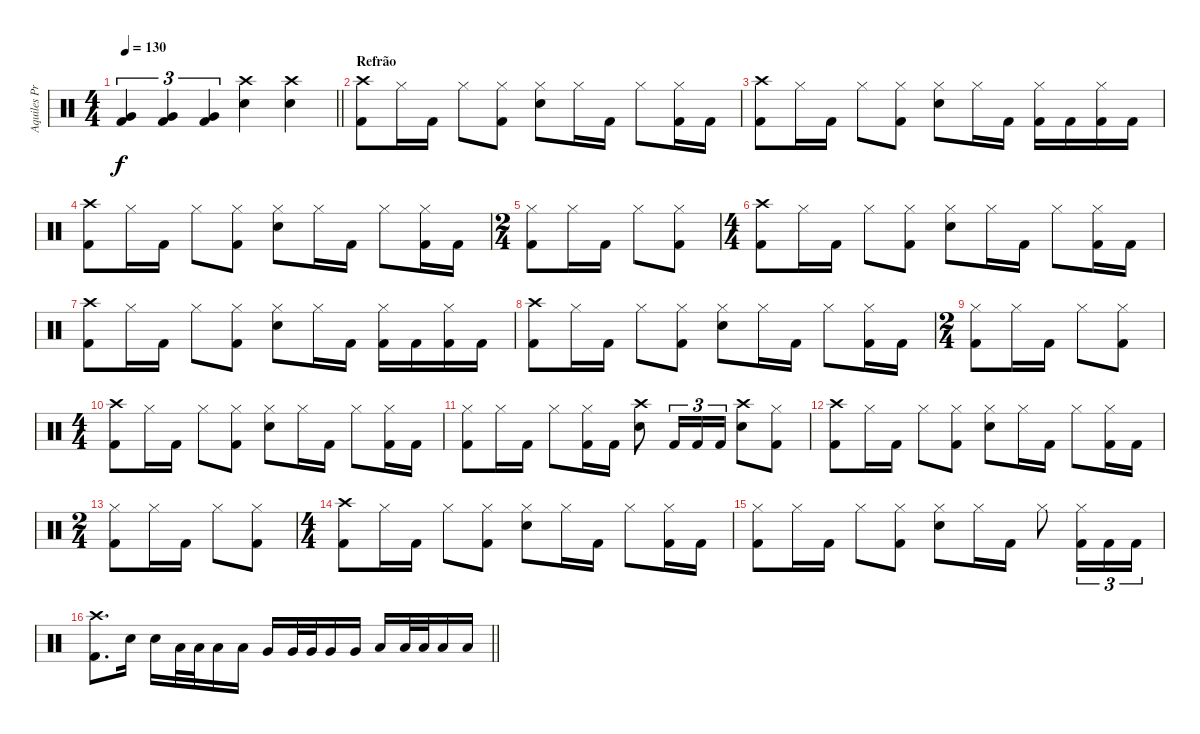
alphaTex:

\track ("Aquiles Priester" "Aquiles Pr") {instrument percussion}
\staff {score}
\articulation defaults
\ts (4 4)
\tempo 130
\clef neutral
\barLineRight lightlight
\ks c
("Very Low Tom (hit)" "Kick (hit) 2").4{tu (3 2) dy f} ("Very Low Tom (hit)" "Kick (hit) 2").4{tu (3 2)} ("Very Low Tom (hit)" "Kick (hit) 2").4{tu (3 2)} ("Crash high (hit)" "Electric Snare (hit)").4 ("Crash high (hit)" "Electric Snare (hit)").4 |
\section ("" "Refrão")
("Crash high (hit)" "Kick (hit) 2").8 "Hi-Hat (closed)".16 "Kick (hit) 2".16 "Hi-Hat (closed)".8 ("Hi-Hat (closed)" "Kick (hit) 2").8 ("Hi-Hat (closed)" "Electric Snare (hit)").8 "Hi-Hat (closed)".16 "Kick (hit) 2".16 "Hi-Hat (closed)".8 ("Hi-Hat (closed)" "Kick (hit) 2").16 "Kick (hit) 2".16 |
("Crash high (hit)" "Kick (hit) 2").8 "Hi-Hat (closed)".16 "Kick (hit) 2".16 "Hi-Hat (closed)".8 ("Hi-Hat (closed)" "Kick (hit) 2").8 ("Hi-Hat (closed)" "Electric Snare (hit)").8 "Hi-Hat (closed)".16 "Kick (hit) 2".16 ("Hi-Hat (closed)" "Kick (hit) 2").16 "Kick (hit) 2".16 ("Hi-Hat (closed)" "Kick (hit) 2").16 "Kick (hit) 2".16 |
("Crash high (hit)" "Kick (hit) 2").8 "Hi-Hat (closed)".16 "Kick (hit) 2".16 "Hi-Hat (closed)".8 ("Hi-Hat (closed)" "Kick (hit) 2").8 ("Hi-Hat (closed)" "Electric Snare (hit)").8 "Hi-Hat (closed)".16 "Kick (hit) 2".16 "Hi-Hat (closed)".8 ("Hi-Hat (closed)" "Kick (hit) 2").16 "Kick (hit) 2".16 |
\ts (2 4)
("Hi-Hat (closed)" "Kick (hit) 2").8 "Hi-Hat (closed)".16 "Kick (hit) 2".16 "Hi-Hat (closed)".8 ("Hi-Hat (closed)" "Kick (hit) 2").8 |
\ts (4 4)
("Crash high (hit)" "Kick (hit) 2").8 "Hi-Hat (closed)".16 "Kick (hit) 2".16 "Hi-Hat (closed)".8 ("Hi-Hat (closed)" "Kick (hit) 2").8 ("Hi-Hat (closed)" "Electric Snare (hit)").8 "Hi-Hat (closed)".16 "Kick (hit) 2".16 "Hi-Hat (closed)".8 ("Hi-Hat (closed)" "Kick (hit) 2").16 "Kick (hit) 2".16 |
("Crash high (hit)" "Kick (hit) 2").8 "Hi-Hat (closed)".16 "Kick (hit) 2".16 "Hi-Hat (closed)".8 ("Hi-Hat (closed)" "Kick (hit) 2").8 ("Hi-Hat (closed)" "Electric Snare (hit)").8 "Hi-Hat (closed)".16 "Kick (hit) 2".16 ("Hi-Hat (closed)" "Kick (hit) 2").16 "Kick (hit) 2".16 ("Hi-Hat (closed)" "Kick (hit) 2").16 "Kick (hit) 2".16 |
("Crash high (hit)" "Kick (hit) 2").8 "Hi-Hat (closed)".16 "Kick (hit) 2".16 "Hi-Hat (closed)".8 ("Hi-Hat (closed)" "Kick (hit) 2").8 ("Hi-Hat (closed)" "Electric Snare (hit)").8 "Hi-Hat (closed)".16 "Kick (hit) 2".16 "Hi-Hat (closed)".8 ("Hi-Hat (closed)" "Kick (hit) 2").16 "Kick (hit) 2".16 |
\ts (2 4)
("Hi-Hat (closed)" "Kick (hit) 2").8 "Hi-Hat (closed)".16 "Kick (hit) 2".16 "Hi-Hat (closed)".8 ("Hi-Hat (closed)" "Kick (hit) 2").8 |
\ts (4 4)
("Crash high (hit)" "Kick (hit) 2").8 "Hi-Hat (closed)".16 "Kick (hit) 2".16 "Hi-Hat (closed)".8 ("Hi-Hat (closed)" "Kick (hit) 2").8 ("Hi-Hat (closed)" "Electric Snare (hit)").8 "Hi-Hat (closed)".16 "Kick (hit) 2".16 "Hi-Hat (closed)".8 ("Hi-Hat (closed)" "Kick (hit) 2").16 "Kick (hit) 2".16 |
("Hi-Hat (closed)" "Kick (hit) 2").8 "Hi-Hat (closed)".16 "Kick (hit) 2".16 "Hi-Hat (closed)".8 ("Hi-Hat (closed)" "Kick (hit) 2").16 "Kick (hit) 2".16 ("Crash high (hit)" "Electric Snare (hit)").8 "Kick (hit) 2".16{tu (3 2)} "Kick (hit) 2".16{tu (3 2)} "Kick (hit) 2".16{tu (3 2)} ("Crash high (hit)" "Electric Snare (hit)").8 ("Hi-Hat (closed)" "Kick (hit) 2").8 |
("Crash high (hit)" "Kick (hit) 2").8 "Hi-Hat (closed)".16 "Kick (hit) 2".16 "Hi-Hat (closed)".8 ("Hi-Hat (closed)" "Kick (hit) 2").8 ("Hi-Hat (closed)" "Electric Snare (hit)").8 "Hi-Hat (closed)".16 "Kick (hit) 2".16 "Hi-Hat (closed)".8 ("Hi-Hat (closed)" "Kick (hit) 2").16 "Kick (hit) 2".16 |
\ts (2 4)
("Hi-Hat (closed)" "Kick (hit) 2").8 "Hi-Hat (closed)".16 "Kick (hit) 2".16 "Hi-Hat (closed)".8 ("Hi-Hat (closed)" "Kick (hit) 2").8 |
\ts (4 4)
("Crash high (hit)" "Kick (hit) 2").8 "Hi-Hat (closed)".16 "Kick (hit) 2".16 "Hi-Hat (closed)".8 ("Hi-Hat (closed)" "Kick (hit) 2").8 ("Hi-Hat (closed)" "Electric Snare (hit)").8 "Hi-Hat (closed)".16 "Kick (hit) 2".16 "Hi-Hat (closed)".8 ("Hi-Hat (closed)" "Kick (hit) 2").16 "Kick (hit) 2".16 |
("Hi-Hat (closed)" "Kick (hit) 2").8 "Hi-Hat (closed)".16 "Kick (hit) 2".16 "Hi-Hat (closed)".8 ("Hi-Hat (closed)" "Kick (hit) 2").8 ("Hi-Hat (closed)" "Electric Snare (hit)").8 "Hi-Hat (closed)".16 "Kick (hit) 2".16 "Hi-Hat (closed)".8 ("Hi-Hat (closed)" "Kick (hit) 2").16{tu (3 2)} "Kick (hit) 2".16{tu (3 2)} "Kick (hit) 2".16{tu (3 2)} |
\barLineRight lightlight
("Crash high (hit)" "Kick (hit) 2").8{d} "Electric Snare (hit)".16 "Electric Snare (hit)".16 "Low Tom (hit)".32 "Low Tom (hit)".32 "Low Tom (hit)".16 "Low Tom (hit)".16 "Very Low Tom (hit)".16 "Very Low Tom (hit)".32 "Very Low Tom (hit)".32 "Very Low Tom (hit)".16 "Very Low Tom (hit)".16 "Low Floor Tom (hit)".16 "Low Floor Tom (hit)".32 "Low Floor Tom (hit)".32 "Low Floor Tom (hit)".16 "Low Floor Tom (hit)".16
